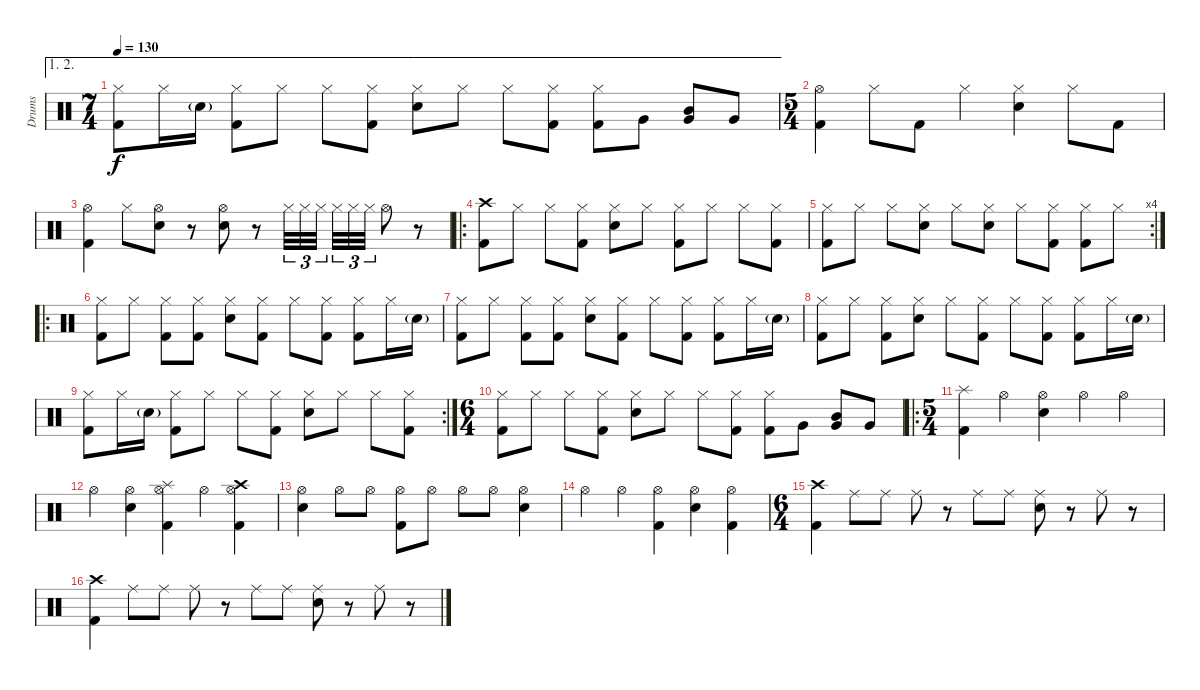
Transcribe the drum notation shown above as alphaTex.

\track ("Drums" "Drums") {instrument percussion}
\staff {score}
\articulation defaults
\ae (1 2)
\ts (7 4)
\tempo 130
\clef neutral
\ks c
("Hi-Hat (closed)" "Kick (hit) 2").8{dy f} "Hi-Hat (closed)".16 "Snare (hit) 2"{g}.16 ("Hi-Hat (closed)" "Kick (hit) 2").8 "Hi-Hat (closed)".8 "Hi-Hat (closed)".8 ("Hi-Hat (closed)" "Kick (hit) 2").8 ("Hi-Hat (closed)" "Snare (hit) 2").8 "Hi-Hat (closed)".8 "Hi-Hat (closed)".8 ("Hi-Hat (closed)" "Kick (hit) 2").8 ("Hi-Hat (closed)" "Kick (hit) 2").8 "Very Low Tom (hit)".8 ("Mid Tom (hit)" "Very Low Tom (hit)").8 "Very Low Tom (hit)".8 |
\ts (5 4)
("Hi-Hat (open)" "Kick (hit) 2").4 "Hi-Hat (closed)".8 "Kick (hit) 2".8 "Hi-Hat (closed)".4 ("Hi-Hat (closed)" "Snare (hit) 2").4 "Hi-Hat (closed)".8 "Kick (hit) 2".8 |
("Hi-Hat (open)" "Kick (hit) 2").4 "Hi-Hat (closed)".8 ("Hi-Hat (open)" "Snare (hit) 2").8 r.8 ("Hi-Hat (open)" "Snare (hit) 2").8 r.8 "Hi-Hat (closed)".32{tu (3 2)} "Hi-Hat (closed)".32{tu (3 2)} "Hi-Hat (closed)".32{tu (3 2)} "Hi-Hat (closed)".32{tu (3 2)} "Hi-Hat (closed)".32{tu (3 2)} "Hi-Hat (closed)".32{tu (3 2)} "Hi-Hat (open)".8 r.8 |
\ro
("Crash high (hit)" "Kick (hit) 2").8 "Hi-Hat (closed)".8 "Hi-Hat (closed)".8 ("Hi-Hat (closed)" "Kick (hit) 2").8 ("Hi-Hat (closed)" "Snare (hit) 2").8 "Hi-Hat (closed)".8 ("Hi-Hat (closed)" "Kick (hit) 2").8 "Hi-Hat (closed)".8 "Hi-Hat (closed)".8 ("Hi-Hat (closed)" "Kick (hit) 2").8 |
\rc 4
("Hi-Hat (closed)" "Kick (hit) 2").8 "Hi-Hat (closed)".8 "Hi-Hat (closed)".8 ("Hi-Hat (closed)" "Snare (hit) 2").8 "Hi-Hat (closed)".8 ("Hi-Hat (closed)" "Snare (hit) 2").8 "Hi-Hat (closed)".8 ("Hi-Hat (closed)" "Kick (hit) 2").8 ("Hi-Hat (closed)" "Kick (hit) 2").8 "Hi-Hat (closed)".8 |
\ro
("Hi-Hat (closed)" "Kick (hit) 2").8 "Hi-Hat (closed)".8 ("Hi-Hat (closed)" "Kick (hit) 2").8 ("Hi-Hat (closed)" "Kick (hit) 2").8 ("Hi-Hat (closed)" "Snare (hit) 2").8 ("Hi-Hat (closed)" "Kick (hit) 2").8 "Hi-Hat (closed)".8 ("Hi-Hat (closed)" "Kick (hit) 2").8 ("Hi-Hat (closed)" "Kick (hit) 2").8 "Hi-Hat (closed)".16 "Snare (hit) 2"{g}.16 |
("Hi-Hat (closed)" "Kick (hit) 2").8 "Hi-Hat (closed)".8 ("Hi-Hat (closed)" "Kick (hit) 2").8 ("Hi-Hat (closed)" "Kick (hit) 2").8 ("Hi-Hat (closed)" "Snare (hit) 2").8 ("Hi-Hat (closed)" "Kick (hit) 2").8 "Hi-Hat (closed)".8 ("Hi-Hat (closed)" "Kick (hit) 2").8 ("Hi-Hat (closed)" "Kick (hit) 2").8 "Hi-Hat (closed)".16 "Snare (hit) 2"{g}.16 |
("Hi-Hat (closed)" "Kick (hit) 2").8 "Hi-Hat (closed)".8 ("Hi-Hat (closed)" "Kick (hit) 2").8 ("Hi-Hat (closed)" "Snare (hit) 2").8 "Hi-Hat (closed)".8 ("Hi-Hat (closed)" "Kick (hit) 2").8 "Hi-Hat (closed)".8 ("Hi-Hat (closed)" "Kick (hit) 2").8 ("Hi-Hat (closed)" "Kick (hit) 2").8 "Hi-Hat (closed)".16 "Snare (hit) 2"{g}.16 |
\rc 2
("Hi-Hat (closed)" "Kick (hit) 2").8 "Hi-Hat (closed)".16 "Snare (hit) 2"{g}.16 ("Hi-Hat (closed)" "Kick (hit) 2").8 "Hi-Hat (closed)".8 "Hi-Hat (closed)".8 ("Hi-Hat (closed)" "Kick (hit) 2").8 ("Hi-Hat (closed)" "Snare (hit) 2").8 "Hi-Hat (closed)".8 "Hi-Hat (closed)".8 ("Hi-Hat (closed)" "Kick (hit) 2").8 |
\ts (6 4)
("Hi-Hat (closed)" "Kick (hit) 2").8 "Hi-Hat (closed)".8 "Hi-Hat (closed)".8 ("Hi-Hat (closed)" "Kick (hit) 2").8 ("Hi-Hat (closed)" "Snare (hit) 2").8 "Hi-Hat (closed)".8 "Hi-Hat (closed)".8 ("Hi-Hat (closed)" "Kick (hit) 2").8 ("Hi-Hat (closed)" "Kick (hit) 2").8 "Very Low Tom (hit)".8 ("Mid Tom (hit)" "Very Low Tom (hit)").8 "Very Low Tom (hit)".8 |
\ro
\ts (5 4)
("Splash (hit)" "Kick (hit) 2").4 "Hi-Hat (open)".4 ("Hi-Hat (open)" "Snare (hit) 2").4 "Hi-Hat (open)".4 "Hi-Hat (open)".4 |
"Hi-Hat (open)".4 ("Hi-Hat (open)" "Snare (hit) 2").4 ("Splash (hit)" "Hi-Hat (open)" "Kick (hit) 2").4 "Hi-Hat (open)".4 ("Crash high (hit)" "Hi-Hat (open)" "Kick (hit) 2").4 |
("Hi-Hat (open)" "Snare (hit) 2").4 "Hi-Hat (open)".8 "Hi-Hat (open)".8 ("Hi-Hat (open)" "Kick (hit) 2").8 "Hi-Hat (open)".8 "Hi-Hat (open)".8 "Hi-Hat (open)".8 ("Hi-Hat (open)" "Snare (hit) 2").4 |
"Hi-Hat (open)".4 "Hi-Hat (open)".4 ("Hi-Hat (open)" "Kick (hit) 2").4 ("Hi-Hat (open)" "Snare (hit) 2").4 ("Hi-Hat (open)" "Kick (hit) 2").4 |
\ts (6 4)
("Crash high (hit)" "Kick (hit) 2").4 "Ride (middle)".8 "Ride (middle)".8 "Ride (middle)".8 r.8 "Ride (middle)".8 "Ride (middle)".8 ("Ride (middle)" "Snare (hit) 2").8 r.8 "Ride (middle)".8 r.8 |
("Crash high (hit)" "Kick (hit) 2").4 "Ride (middle)".8 "Ride (middle)".8 "Ride (middle)".8 r.8 "Ride (middle)".8 "Ride (middle)".8 ("Ride (middle)" "Snare (hit) 2").8 r.8 "Ride (middle)".8 r.8
